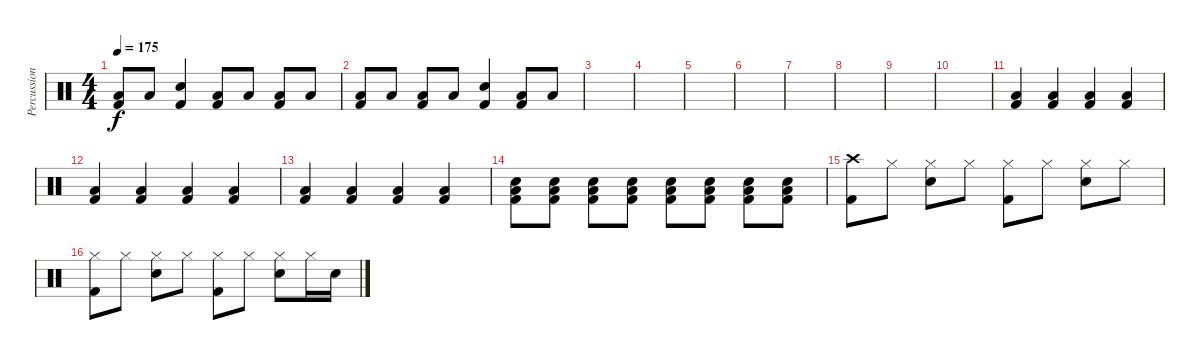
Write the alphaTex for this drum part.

\track ("Percussion" "Percussion") {instrument percussion}
\staff {score}
\articulation defaults
\ts (4 4)
\tempo 175
\clef neutral
\ks c
("Low Floor Tom (hit)" "Kick (hit) 2").8{dy f} "Low Floor Tom (hit)".8 ("Snare (hit) 2" "Kick (hit) 2").4 ("Low Floor Tom (hit)" "Kick (hit) 2").8 "Low Floor Tom (hit)".8 ("Low Floor Tom (hit)" "Kick (hit) 2").8 "Low Floor Tom (hit)".8 |
("Low Floor Tom (hit)" "Kick (hit) 2").8 "Low Floor Tom (hit)".8 ("Low Floor Tom (hit)" "Kick (hit) 2").8 "Low Floor Tom (hit)".8 ("Snare (hit) 2" "Kick (hit) 2").4 ("Low Floor Tom (hit)" "Kick (hit) 2").8 "Low Floor Tom (hit)".8 |
|
|
|
|
|
|
|
|
("Low Floor Tom (hit)" "Kick (hit) 2").4 ("Low Floor Tom (hit)" "Kick (hit) 2").4 ("Low Floor Tom (hit)" "Kick (hit) 2").4 ("Low Floor Tom (hit)" "Kick (hit) 2").4 |
("Low Floor Tom (hit)" "Kick (hit) 2").4 ("Low Floor Tom (hit)" "Kick (hit) 2").4 ("Low Floor Tom (hit)" "Kick (hit) 2").4 ("Low Floor Tom (hit)" "Kick (hit) 2").4 |
("Low Floor Tom (hit)" "Kick (hit) 2").4 ("Low Floor Tom (hit)" "Kick (hit) 2").4 ("Low Floor Tom (hit)" "Kick (hit) 2").4 ("Low Floor Tom (hit)" "Kick (hit) 2").4 |
("Snare (hit) 2" "Low Floor Tom (hit)" "Kick (hit) 2").8 ("Snare (hit) 2" "Low Floor Tom (hit)" "Kick (hit) 2").8 ("Snare (hit) 2" "Low Floor Tom (hit)" "Kick (hit) 2").8 ("Snare (hit) 2" "Low Floor Tom (hit)" "Kick (hit) 2").8 ("Snare (hit) 2" "Low Floor Tom (hit)" "Kick (hit) 2").8 ("Snare (hit) 2" "Low Floor Tom (hit)" "Kick (hit) 2").8 ("Snare (hit) 2" "Low Floor Tom (hit)" "Kick (hit) 2").8 ("Snare (hit) 2" "Low Floor Tom (hit)" "Kick (hit) 2").8 |
("Crash high (hit)" "Kick (hit) 2").8 "Hi-Hat (closed)".8 ("Hi-Hat (closed)" "Snare (hit) 2").8 "Hi-Hat (closed)".8 ("Hi-Hat (closed)" "Kick (hit) 2").8 "Hi-Hat (closed)".8 ("Hi-Hat (closed)" "Snare (hit) 2").8 "Hi-Hat (closed)".8 |
("Hi-Hat (closed)" "Kick (hit) 2").8 "Hi-Hat (closed)".8 ("Hi-Hat (closed)" "Snare (hit) 2").8 "Hi-Hat (closed)".8 ("Hi-Hat (closed)" "Kick (hit) 2").8 "Hi-Hat (closed)".8 ("Hi-Hat (closed)" "Snare (hit) 2").8 "Hi-Hat (closed)".16 "Snare (hit) 2".16
